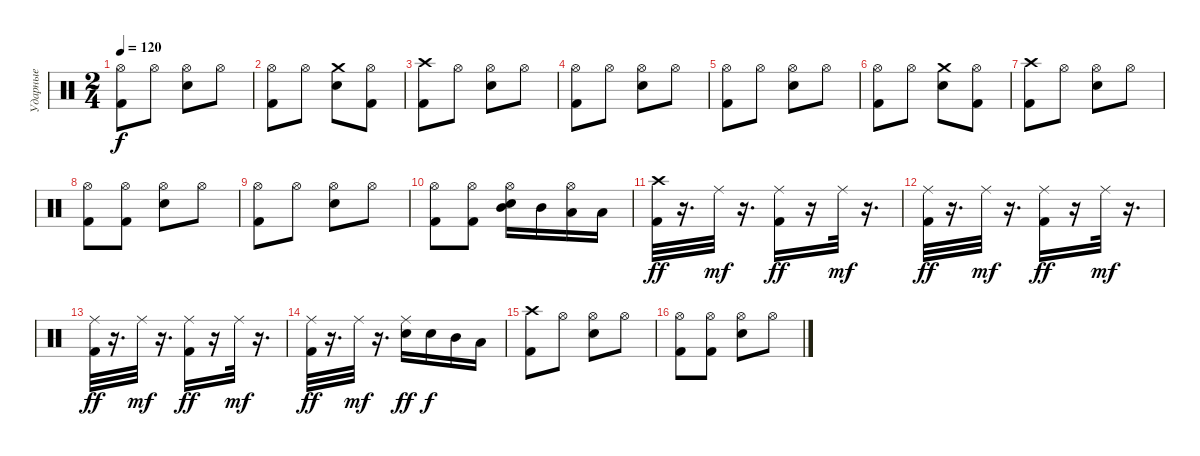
\track ("Ударные" "Ударные") {instrument percussion}
\staff {score}
\articulation defaults
\ts (2 4)
\tempo 120
\clef neutral
\ks c
("Hi-Hat (open)" "Kick (hit) 2").8{dy f} "Hi-Hat (open)".8 ("Hi-Hat (open)" "Electric Snare (hit)").8 "Hi-Hat (open)".8 |
("Hi-Hat (open)" "Kick (hit) 2").8 "Hi-Hat (open)".8 ("Crash medium (hit)" "Electric Snare (hit)").8 ("Hi-Hat (open)" "Kick (hit) 2").8 |
("Crash high (hit)" "Kick (hit) 2").8 "Hi-Hat (open)".8 ("Hi-Hat (open)" "Electric Snare (hit)").8 "Hi-Hat (open)".8 |
("Hi-Hat (open)" "Kick (hit) 2").8 "Hi-Hat (open)".8 ("Hi-Hat (open)" "Electric Snare (hit)").8 "Hi-Hat (open)".8 |
("Hi-Hat (open)" "Kick (hit) 2").8 "Hi-Hat (open)".8 ("Hi-Hat (open)" "Electric Snare (hit)").8 "Hi-Hat (open)".8 |
("Hi-Hat (open)" "Kick (hit) 2").8 "Hi-Hat (open)".8 ("Crash medium (hit)" "Electric Snare (hit)").8 ("Hi-Hat (open)" "Kick (hit) 2").8 |
("Crash high (hit)" "Kick (hit) 2").8 "Hi-Hat (open)".8 ("Hi-Hat (open)" "Electric Snare (hit)").8 "Hi-Hat (open)".8 |
("Hi-Hat (open)" "Kick (hit) 2").8 ("Hi-Hat (open)" "Kick (hit) 2").8 ("Hi-Hat (open)" "Electric Snare (hit)").8 "Hi-Hat (open)".8 |
("Hi-Hat (open)" "Kick (hit) 2").8 "Hi-Hat (open)".8 ("Hi-Hat (open)" "Electric Snare (hit)").8 "Hi-Hat (open)".8 |
("Hi-Hat (open)" "Kick (hit) 2").8 ("Hi-Hat (open)" "Kick (hit) 2").8 ("Hi-Hat (open)" "Mid Tom (hit)" "Electric Snare (hit)").16 "Mid Tom (hit)".16 ("Hi-Hat (open)" "Low Tom (hit)").16 "Low Tom (hit)".16 |
("Crash high (hit)" "Kick (hit) 2").32{dy ff} r.16{d} "Ride (middle)".32{dy mf} r.16{d} ("Ride (middle)" "Kick (hit) 2").16{dy ff} r.16 "Ride (middle)".32{dy mf} r.16{d} |
("Ride (middle)" "Kick (hit) 2").32{dy ff} r.16{d} "Ride (middle)".32{dy mf} r.16{d} ("Ride (middle)" "Kick (hit) 2").16{dy ff} r.16 "Ride (middle)".32{dy mf} r.16{d} |
("Ride (middle)" "Kick (hit) 2").32{dy ff} r.16{d} "Ride (middle)".32{dy mf} r.16{d} ("Ride (middle)" "Kick (hit) 2").16{dy ff} r.16 "Ride (middle)".32{dy mf} r.16{d} |
("Ride (middle)" "Kick (hit) 2").32{dy ff} r.16{d} "Ride (middle)".32{dy mf} r.16{d} ("Ride (middle)" "Electric Snare (hit)").16{dy ff} "Electric Snare (hit)".16{dy f} "Mid Tom (hit)".16 "Low Tom (hit)".16 |
("Crash high (hit)" "Kick (hit) 2").8 "Hi-Hat (open)".8 ("Hi-Hat (open)" "Electric Snare (hit)").8 "Hi-Hat (open)".8 |
("Hi-Hat (open)" "Kick (hit) 2").8 ("Hi-Hat (open)" "Kick (hit) 2").8 ("Hi-Hat (open)" "Electric Snare (hit)").8 "Hi-Hat (open)".8
